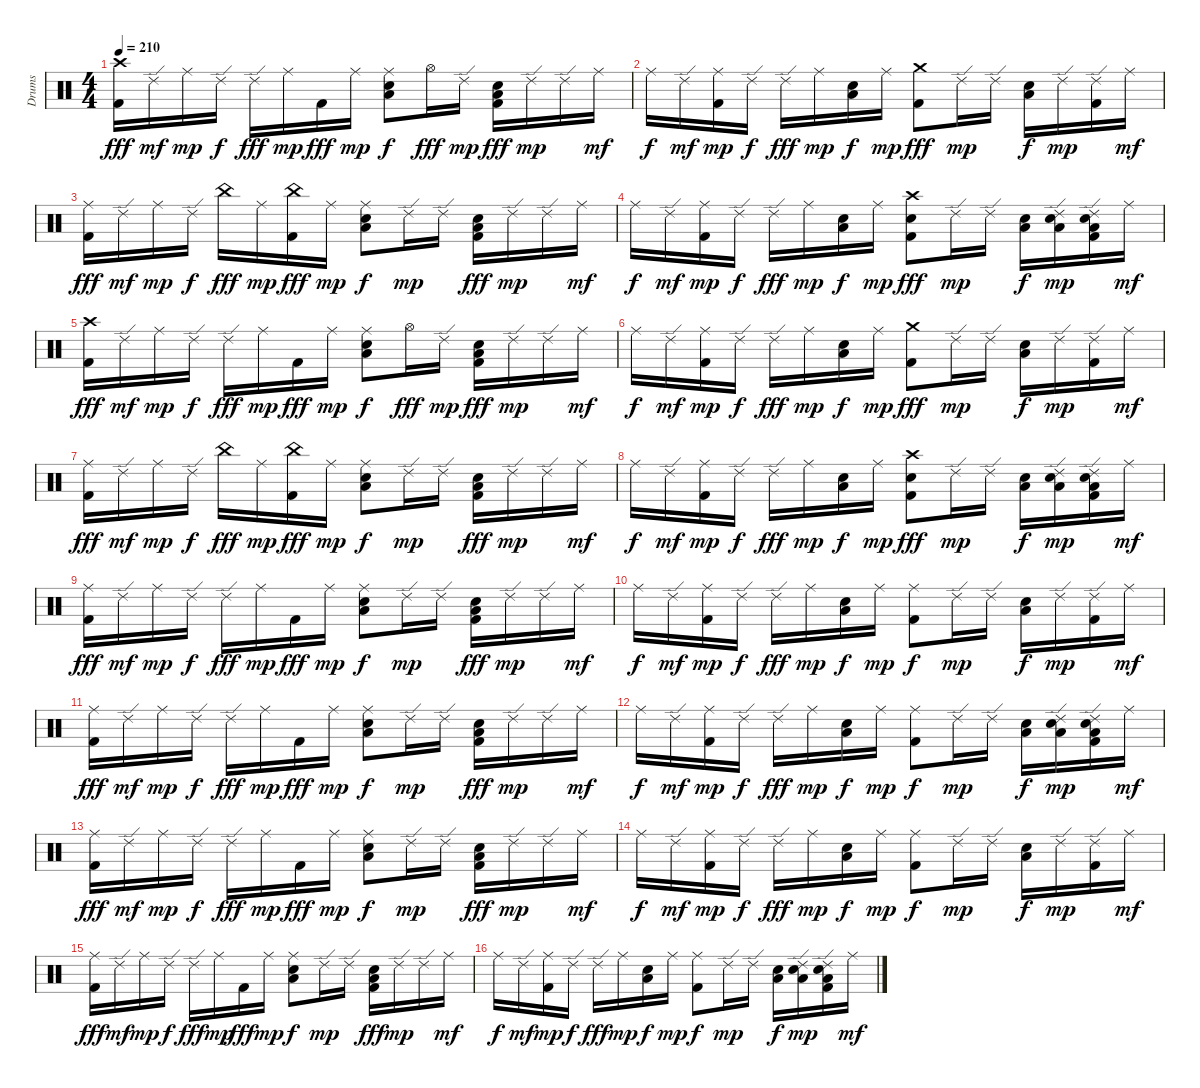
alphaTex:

\track ("Drums" "Drums") {instrument percussion}
\staff {score}
\articulation defaults
\ts (4 4)
\tempo 210
\clef neutral
\ks c
("Crash high (hit)" "Kick (hit) 2").16{dy fff} "Ride (edge) 2".16{dy mf} "Ride (middle)".16{dy mp} "Ride (edge) 2".16{dy f} "Ride (edge) 2".16{dy fff} "Ride (middle)".16{dy mp} "Kick (hit) 2".16{dy fff} "Ride (middle)".16{dy mp} ("Ride (middle)" "Low Tom (hit)" "Electric Snare (hit)").8{dy f} "Hi-Hat (open)".16{dy fff} "Ride (edge) 2".16{dy mp} ("Low Tom (hit)" "Electric Snare (hit)" "Kick (hit) 2").16{dy fff} "Ride (edge) 2".16{dy mp} "Ride (edge) 2".16 "Ride (middle)".16{dy mf} |
"Ride (middle)".16{dy f} "Ride (edge) 2".16{dy mf} ("Ride (middle)" "Kick (hit) 2").16{dy mp} "Ride (edge) 2".16{dy f} "Ride (edge) 2".16{dy fff} "Ride (middle)".16{dy mp} ("Low Tom (hit)" "Electric Snare (hit)").16{dy f} "Ride (middle)".16{dy mp} ("Crash medium (hit)" "Kick (hit) 2").8{dy fff} "Ride (edge) 2".16{dy mp} "Ride (edge) 2".16 ("Low Tom (hit)" "Electric Snare (hit)").16{dy f} "Ride (edge) 2".16{dy mp} ("Ride (edge) 2" "Kick (hit) 2").16 "Ride (middle)".16{dy mf} |
("Ride (middle)" "Kick (hit) 2").16{dy fff} "Ride (edge) 2".16{dy mf} "Ride (middle)".16{dy mp} "Ride (edge) 2".16{dy f} "China (hit)".16{dy fff} "Ride (middle)".16{dy mp} ("China (hit)" "Kick (hit) 2").16{dy fff} "Ride (middle)".16{dy mp} ("Ride (middle)" "Low Tom (hit)" "Electric Snare (hit)").8{dy f} "Ride (edge) 2".16{dy mp} "Ride (edge) 2".16 ("Low Tom (hit)" "Electric Snare (hit)" "Kick (hit) 2").16{dy fff} "Ride (edge) 2".16{dy mp} "Ride (edge) 2".16 "Ride (middle)".16{dy mf} |
"Ride (middle)".16{dy f} "Ride (edge) 2".16{dy mf} ("Ride (middle)" "Kick (hit) 2").16{dy mp} "Ride (edge) 2".16{dy f} "Ride (edge) 2".16{dy fff} "Ride (middle)".16{dy mp} ("Low Tom (hit)" "Electric Snare (hit)").16{dy f} "Ride (middle)".16{dy mp} ("Crash high (hit)" "Electric Snare (hit)" "Kick (hit) 2").8{dy fff} "Ride (edge) 2".16{dy mp} "Ride (edge) 2".16 ("Low Tom (hit)" "Electric Snare (hit)").16{dy f} ("Ride (edge) 2" "Low Tom (hit)" "Electric Snare (hit)").16{dy mp} ("Ride (edge) 2" "Low Tom (hit)" "Electric Snare (hit)" "Kick (hit) 2").16 "Ride (middle)".16{dy mf} |
("Crash high (hit)" "Kick (hit) 2").16{dy fff} "Ride (edge) 2".16{dy mf} "Ride (middle)".16{dy mp} "Ride (edge) 2".16{dy f} "Ride (edge) 2".16{dy fff} "Ride (middle)".16{dy mp} "Kick (hit) 2".16{dy fff} "Ride (middle)".16{dy mp} ("Ride (middle)" "Low Tom (hit)" "Electric Snare (hit)").8{dy f} "Hi-Hat (open)".16{dy fff} "Ride (edge) 2".16{dy mp} ("Low Tom (hit)" "Electric Snare (hit)" "Kick (hit) 2").16{dy fff} "Ride (edge) 2".16{dy mp} "Ride (edge) 2".16 "Ride (middle)".16{dy mf} |
"Ride (middle)".16{dy f} "Ride (edge) 2".16{dy mf} ("Ride (middle)" "Kick (hit) 2").16{dy mp} "Ride (edge) 2".16{dy f} "Ride (edge) 2".16{dy fff} "Ride (middle)".16{dy mp} ("Low Tom (hit)" "Electric Snare (hit)").16{dy f} "Ride (middle)".16{dy mp} ("Crash medium (hit)" "Kick (hit) 2").8{dy fff} "Ride (edge) 2".16{dy mp} "Ride (edge) 2".16 ("Low Tom (hit)" "Electric Snare (hit)").16{dy f} "Ride (edge) 2".16{dy mp} ("Ride (edge) 2" "Kick (hit) 2").16 "Ride (middle)".16{dy mf} |
("Ride (middle)" "Kick (hit) 2").16{dy fff} "Ride (edge) 2".16{dy mf} "Ride (middle)".16{dy mp} "Ride (edge) 2".16{dy f} "China (hit)".16{dy fff} "Ride (middle)".16{dy mp} ("China (hit)" "Kick (hit) 2").16{dy fff} "Ride (middle)".16{dy mp} ("Ride (middle)" "Low Tom (hit)" "Electric Snare (hit)").8{dy f} "Ride (edge) 2".16{dy mp} "Ride (edge) 2".16 ("Low Tom (hit)" "Electric Snare (hit)" "Kick (hit) 2").16{dy fff} "Ride (edge) 2".16{dy mp} "Ride (edge) 2".16 "Ride (middle)".16{dy mf} |
"Ride (middle)".16{dy f} "Ride (edge) 2".16{dy mf} ("Ride (middle)" "Kick (hit) 2").16{dy mp} "Ride (edge) 2".16{dy f} "Ride (edge) 2".16{dy fff} "Ride (middle)".16{dy mp} ("Low Tom (hit)" "Electric Snare (hit)").16{dy f} "Ride (middle)".16{dy mp} ("Crash high (hit)" "Electric Snare (hit)" "Kick (hit) 2").8{dy fff} "Ride (edge) 2".16{dy mp} "Ride (edge) 2".16 ("Low Tom (hit)" "Electric Snare (hit)").16{dy f} ("Ride (edge) 2" "Low Tom (hit)" "Electric Snare (hit)").16{dy mp} ("Ride (edge) 2" "Low Tom (hit)" "Electric Snare (hit)" "Kick (hit) 2").16 "Ride (middle)".16{dy mf} |
("Ride (middle)" "Kick (hit) 2").16{dy fff} "Ride (edge) 2".16{dy mf} "Ride (middle)".16{dy mp} "Ride (edge) 2".16{dy f} "Ride (edge) 2".16{dy fff} "Ride (middle)".16{dy mp} "Kick (hit) 2".16{dy fff} "Ride (middle)".16{dy mp} ("Ride (middle)" "Low Tom (hit)" "Electric Snare (hit)").8{dy f} "Ride (edge) 2".16{dy mp} "Ride (edge) 2".16 ("Low Tom (hit)" "Electric Snare (hit)" "Kick (hit) 2").16{dy fff} "Ride (edge) 2".16{dy mp} "Ride (edge) 2".16 "Ride (middle)".16{dy mf} |
"Ride (middle)".16{dy f} "Ride (edge) 2".16{dy mf} ("Ride (middle)" "Kick (hit) 2").16{dy mp} "Ride (edge) 2".16{dy f} "Ride (edge) 2".16{dy fff} "Ride (middle)".16{dy mp} ("Low Tom (hit)" "Electric Snare (hit)").16{dy f} "Ride (middle)".16{dy mp} ("Ride (middle)" "Kick (hit) 2").8{dy f} "Ride (edge) 2".16{dy mp} "Ride (edge) 2".16 ("Low Tom (hit)" "Electric Snare (hit)").16{dy f} "Ride (edge) 2".16{dy mp} ("Ride (edge) 2" "Kick (hit) 2").16 "Ride (middle)".16{dy mf} |
("Ride (middle)" "Kick (hit) 2").16{dy fff} "Ride (edge) 2".16{dy mf} "Ride (middle)".16{dy mp} "Ride (edge) 2".16{dy f} "Ride (edge) 2".16{dy fff} "Ride (middle)".16{dy mp} "Kick (hit) 2".16{dy fff} "Ride (middle)".16{dy mp} ("Ride (middle)" "Low Tom (hit)" "Electric Snare (hit)").8{dy f} "Ride (edge) 2".16{dy mp} "Ride (edge) 2".16 ("Low Tom (hit)" "Electric Snare (hit)" "Kick (hit) 2").16{dy fff} "Ride (edge) 2".16{dy mp} "Ride (edge) 2".16 "Ride (middle)".16{dy mf} |
"Ride (middle)".16{dy f} "Ride (edge) 2".16{dy mf} ("Ride (middle)" "Kick (hit) 2").16{dy mp} "Ride (edge) 2".16{dy f} "Ride (edge) 2".16{dy fff} "Ride (middle)".16{dy mp} ("Low Tom (hit)" "Electric Snare (hit)").16{dy f} "Ride (middle)".16{dy mp} ("Ride (middle)" "Kick (hit) 2").8{dy f} "Ride (edge) 2".16{dy mp} "Ride (edge) 2".16 ("Low Tom (hit)" "Electric Snare (hit)").16{dy f} ("Ride (edge) 2" "Low Tom (hit)" "Electric Snare (hit)").16{dy mp} ("Ride (edge) 2" "Low Tom (hit)" "Electric Snare (hit)" "Kick (hit) 2").16 "Ride (middle)".16{dy mf} |
("Ride (middle)" "Kick (hit) 2").16{dy fff} "Ride (edge) 2".16{dy mf} "Ride (middle)".16{dy mp} "Ride (edge) 2".16{dy f} "Ride (edge) 2".16{dy fff} "Ride (middle)".16{dy mp} "Kick (hit) 2".16{dy fff} "Ride (middle)".16{dy mp} ("Ride (middle)" "Low Tom (hit)" "Electric Snare (hit)").8{dy f} "Ride (edge) 2".16{dy mp} "Ride (edge) 2".16 ("Low Tom (hit)" "Electric Snare (hit)" "Kick (hit) 2").16{dy fff} "Ride (edge) 2".16{dy mp} "Ride (edge) 2".16 "Ride (middle)".16{dy mf} |
"Ride (middle)".16{dy f} "Ride (edge) 2".16{dy mf} ("Ride (middle)" "Kick (hit) 2").16{dy mp} "Ride (edge) 2".16{dy f} "Ride (edge) 2".16{dy fff} "Ride (middle)".16{dy mp} ("Low Tom (hit)" "Electric Snare (hit)").16{dy f} "Ride (middle)".16{dy mp} ("Ride (middle)" "Kick (hit) 2").8{dy f} "Ride (edge) 2".16{dy mp} "Ride (edge) 2".16 ("Low Tom (hit)" "Electric Snare (hit)").16{dy f} "Ride (edge) 2".16{dy mp} ("Ride (edge) 2" "Kick (hit) 2").16 "Ride (middle)".16{dy mf} |
("Ride (middle)" "Kick (hit) 2").16{dy fff} "Ride (edge) 2".16{dy mf} "Ride (middle)".16{dy mp} "Ride (edge) 2".16{dy f} "Ride (edge) 2".16{dy fff} "Ride (middle)".16{dy mp} "Kick (hit) 2".16{dy fff} "Ride (middle)".16{dy mp} ("Ride (middle)" "Low Tom (hit)" "Electric Snare (hit)").8{dy f} "Ride (edge) 2".16{dy mp} "Ride (edge) 2".16 ("Low Tom (hit)" "Electric Snare (hit)" "Kick (hit) 2").16{dy fff} "Ride (edge) 2".16{dy mp} "Ride (edge) 2".16 "Ride (middle)".16{dy mf} |
"Ride (middle)".16{dy f} "Ride (edge) 2".16{dy mf} ("Ride (middle)" "Kick (hit) 2").16{dy mp} "Ride (edge) 2".16{dy f} "Ride (edge) 2".16{dy fff} "Ride (middle)".16{dy mp} ("Low Tom (hit)" "Electric Snare (hit)").16{dy f} "Ride (middle)".16{dy mp} ("Ride (middle)" "Kick (hit) 2").8{dy f} "Ride (edge) 2".16{dy mp} "Ride (edge) 2".16 ("Low Tom (hit)" "Electric Snare (hit)").16{dy f} ("Ride (edge) 2" "Low Tom (hit)" "Electric Snare (hit)").16{dy mp} ("Ride (edge) 2" "Low Tom (hit)" "Electric Snare (hit)" "Kick (hit) 2").16 "Ride (middle)".16{dy mf}
